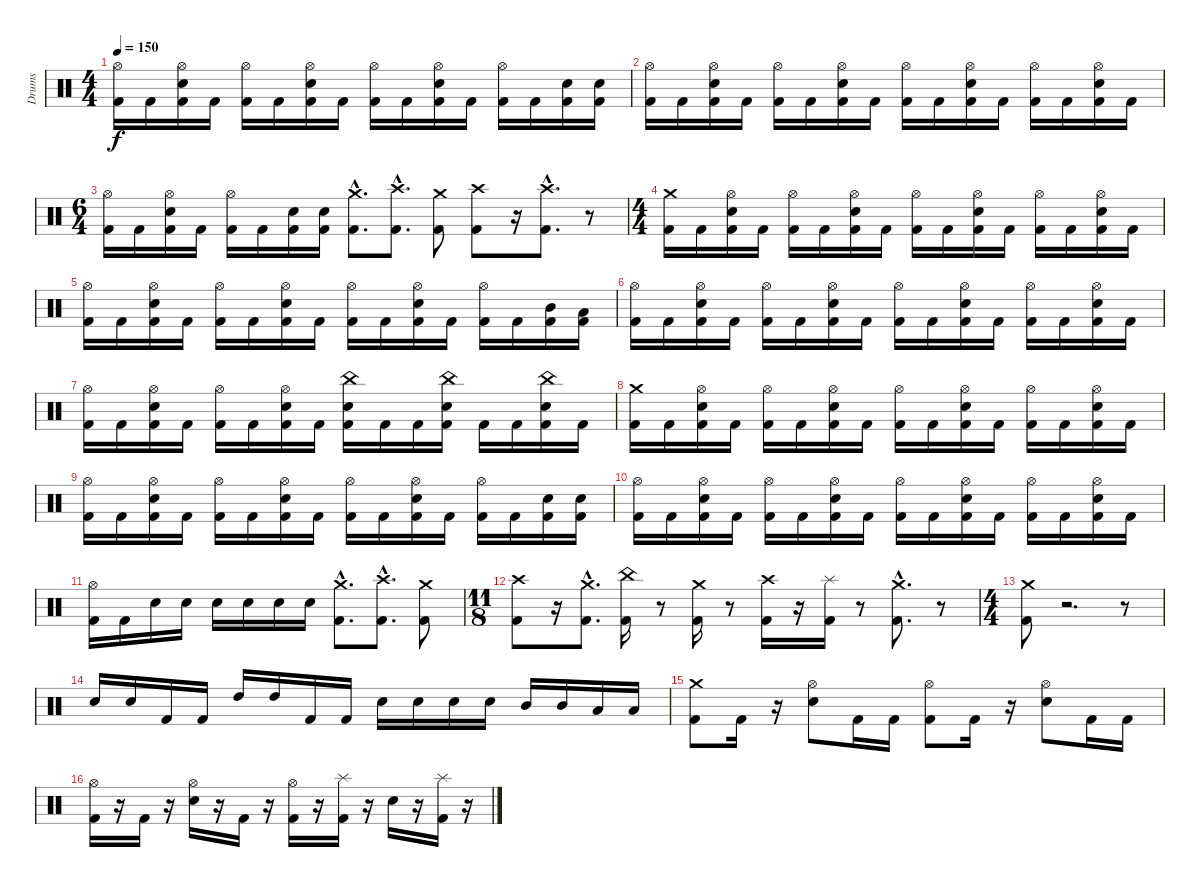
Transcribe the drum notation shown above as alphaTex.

\track ("Drums" "Drums") {instrument percussion}
\staff {score}
\articulation defaults
\ts (4 4)
\tempo 150
\clef neutral
\ks c
("Hi-Hat (open)" "Kick (hit) 2").16{dy f} "Kick (hit) 2".16 ("Hi-Hat (open)" "Electric Snare (hit)" "Kick (hit) 2").16 "Kick (hit) 2".16 ("Hi-Hat (open)" "Kick (hit) 2").16 "Kick (hit) 2".16 ("Hi-Hat (open)" "Electric Snare (hit)" "Kick (hit) 2").16 "Kick (hit) 2".16 ("Hi-Hat (open)" "Kick (hit) 2").16 "Kick (hit) 2".16 ("Hi-Hat (open)" "Electric Snare (hit)" "Kick (hit) 2").16 "Kick (hit) 2".16 ("Hi-Hat (open)" "Kick (hit) 2").16 "Kick (hit) 2".16 ("Electric Snare (hit)" "Kick (hit) 2").16 ("Electric Snare (hit)" "Kick (hit) 2").16 |
("Hi-Hat (open)" "Kick (hit) 2").16 "Kick (hit) 2".16 ("Hi-Hat (open)" "Electric Snare (hit)" "Kick (hit) 2").16 "Kick (hit) 2".16 ("Hi-Hat (open)" "Kick (hit) 2").16 "Kick (hit) 2".16 ("Hi-Hat (open)" "Electric Snare (hit)" "Kick (hit) 2").16 "Kick (hit) 2".16 ("Hi-Hat (open)" "Kick (hit) 2").16 "Kick (hit) 2".16 ("Hi-Hat (open)" "Electric Snare (hit)" "Kick (hit) 2").16 "Kick (hit) 2".16 ("Hi-Hat (open)" "Kick (hit) 2").16 "Kick (hit) 2".16 ("Hi-Hat (open)" "Electric Snare (hit)" "Kick (hit) 2").16 "Kick (hit) 2".16 |
\ts (6 4)
("Hi-Hat (open)" "Kick (hit) 2").16 "Kick (hit) 2".16 ("Hi-Hat (open)" "Electric Snare (hit)" "Kick (hit) 2").16 "Kick (hit) 2".16 ("Hi-Hat (open)" "Kick (hit) 2").16 "Kick (hit) 2".16 ("Electric Snare (hit)" "Kick (hit) 2").16 ("Electric Snare (hit)" "Kick (hit) 2").16 ("Crash medium (hit)" "Kick (hit) 2"{hac}).8{d} ("Crash high (hit)" "Kick (hit) 2"{hac}).8{d} ("Crash medium (hit)" "Kick (hit) 2").8 ("Crash high (hit)" "Kick (hit) 2").8 r.16 ("Crash high (hit)" "Kick (hit) 2"{hac}).8{d} r.8 |
\ts (4 4)
("Crash medium (hit)" "Kick (hit) 2").16 "Kick (hit) 2".16 ("Hi-Hat (open)" "Electric Snare (hit)" "Kick (hit) 2").16 "Kick (hit) 2".16 ("Hi-Hat (open)" "Kick (hit) 2").16 "Kick (hit) 2".16 ("Hi-Hat (open)" "Electric Snare (hit)" "Kick (hit) 2").16 "Kick (hit) 2".16 ("Hi-Hat (open)" "Kick (hit) 2").16 "Kick (hit) 2".16 ("Hi-Hat (open)" "Electric Snare (hit)" "Kick (hit) 2").16 "Kick (hit) 2".16 ("Hi-Hat (open)" "Kick (hit) 2").16 "Kick (hit) 2".16 ("Hi-Hat (open)" "Electric Snare (hit)" "Kick (hit) 2").16 "Kick (hit) 2".16 |
("Hi-Hat (open)" "Kick (hit) 2").16 "Kick (hit) 2".16 ("Hi-Hat (open)" "Electric Snare (hit)" "Kick (hit) 2").16 "Kick (hit) 2".16 ("Hi-Hat (open)" "Kick (hit) 2").16 "Kick (hit) 2".16 ("Hi-Hat (open)" "Electric Snare (hit)" "Kick (hit) 2").16 "Kick (hit) 2".16 ("Hi-Hat (open)" "Kick (hit) 2").16 "Kick (hit) 2".16 ("Hi-Hat (open)" "Electric Snare (hit)" "Kick (hit) 2").16 "Kick (hit) 2".16 ("Hi-Hat (open)" "Kick (hit) 2").16 "Kick (hit) 2".16 ("Mid Tom (hit)" "Kick (hit) 2").16 ("Low Tom (hit)" "Kick (hit) 2").16 |
("Hi-Hat (open)" "Kick (hit) 2").16 "Kick (hit) 2".16 ("Hi-Hat (open)" "Electric Snare (hit)" "Kick (hit) 2").16 "Kick (hit) 2".16 ("Hi-Hat (open)" "Kick (hit) 2").16 "Kick (hit) 2".16 ("Hi-Hat (open)" "Electric Snare (hit)" "Kick (hit) 2").16 "Kick (hit) 2".16 ("Hi-Hat (open)" "Kick (hit) 2").16 "Kick (hit) 2".16 ("Hi-Hat (open)" "Electric Snare (hit)" "Kick (hit) 2").16 "Kick (hit) 2".16 ("Hi-Hat (open)" "Kick (hit) 2").16 "Kick (hit) 2".16 ("Hi-Hat (open)" "Electric Snare (hit)" "Kick (hit) 2").16 "Kick (hit) 2".16 |
("Hi-Hat (open)" "Kick (hit) 2").16 "Kick (hit) 2".16 ("Hi-Hat (open)" "Electric Snare (hit)" "Kick (hit) 2").16 "Kick (hit) 2".16 ("Hi-Hat (open)" "Kick (hit) 2").16 "Kick (hit) 2".16 ("Hi-Hat (open)" "Electric Snare (hit)" "Kick (hit) 2").16 "Kick (hit) 2".16 ("Electric Snare (hit)" "Kick (hit) 2" "China (hit)").16 "Kick (hit) 2".16 "Kick (hit) 2".16 ("Electric Snare (hit)" "Kick (hit) 2" "China (hit)").16 "Kick (hit) 2".16 "Kick (hit) 2".16 ("Electric Snare (hit)" "Kick (hit) 2" "China (hit)").16 "Kick (hit) 2".16 |
("Crash medium (hit)" "Kick (hit) 2").16 "Kick (hit) 2".16 ("Hi-Hat (open)" "Electric Snare (hit)" "Kick (hit) 2").16 "Kick (hit) 2".16 ("Hi-Hat (open)" "Kick (hit) 2").16 "Kick (hit) 2".16 ("Hi-Hat (open)" "Electric Snare (hit)" "Kick (hit) 2").16 "Kick (hit) 2".16 ("Hi-Hat (open)" "Kick (hit) 2").16 "Kick (hit) 2".16 ("Hi-Hat (open)" "Electric Snare (hit)" "Kick (hit) 2").16 "Kick (hit) 2".16 ("Hi-Hat (open)" "Kick (hit) 2").16 "Kick (hit) 2".16 ("Hi-Hat (open)" "Electric Snare (hit)" "Kick (hit) 2").16 "Kick (hit) 2".16 |
("Hi-Hat (open)" "Kick (hit) 2").16 "Kick (hit) 2".16 ("Hi-Hat (open)" "Electric Snare (hit)" "Kick (hit) 2").16 "Kick (hit) 2".16 ("Hi-Hat (open)" "Kick (hit) 2").16 "Kick (hit) 2".16 ("Hi-Hat (open)" "Electric Snare (hit)" "Kick (hit) 2").16 "Kick (hit) 2".16 ("Hi-Hat (open)" "Kick (hit) 2").16 "Kick (hit) 2".16 ("Hi-Hat (open)" "Electric Snare (hit)" "Kick (hit) 2").16 "Kick (hit) 2".16 ("Hi-Hat (open)" "Kick (hit) 2").16 "Kick (hit) 2".16 ("Electric Snare (hit)" "Kick (hit) 2").16 ("Electric Snare (hit)" "Kick (hit) 2").16 |
("Hi-Hat (open)" "Kick (hit) 2").16 "Kick (hit) 2".16 ("Hi-Hat (open)" "Electric Snare (hit)" "Kick (hit) 2").16 "Kick (hit) 2".16 ("Hi-Hat (open)" "Kick (hit) 2").16 "Kick (hit) 2".16 ("Hi-Hat (open)" "Electric Snare (hit)" "Kick (hit) 2").16 "Kick (hit) 2".16 ("Hi-Hat (open)" "Kick (hit) 2").16 "Kick (hit) 2".16 ("Hi-Hat (open)" "Electric Snare (hit)" "Kick (hit) 2").16 "Kick (hit) 2".16 ("Hi-Hat (open)" "Kick (hit) 2").16 "Kick (hit) 2".16 ("Hi-Hat (open)" "Electric Snare (hit)" "Kick (hit) 2").16 "Kick (hit) 2".16 |
("Hi-Hat (open)" "Kick (hit) 2").16 "Kick (hit) 2".16 "Electric Snare (hit)".16 "Electric Snare (hit)".16 "Electric Snare (hit)".16 "Electric Snare (hit)".16 "Electric Snare (hit)".16 "Electric Snare (hit)".16 ("Crash medium (hit)" "Kick (hit) 2"{hac}).8{d} ("Crash high (hit)" "Kick (hit) 2"{hac}).8{d} ("Crash medium (hit)" "Kick (hit) 2").8 |
\ts (11 8)
("Crash high (hit)" "Kick (hit) 2").8 r.16 ("Crash medium (hit)" "Kick (hit) 2"{hac}).8{d} ("China (hit)" "Kick (hit) 2").16 r.8 ("Crash medium (hit)" "Kick (hit) 2").16 r.8 ("Crash high (hit)" "Kick (hit) 2").16 r.16 ("Splash (hit)" "Kick (hit) 2").16 r.8 ("Crash medium (hit)" "Kick (hit) 2"{hac}).8{d} r.8 |
\ts (4 4)
("Crash medium (hit)" "Kick (hit) 2").8 r.2{d} r.8 |
"Electric Snare (hit)".16 "Electric Snare (hit)".16 "Kick (hit) 2".16 "Kick (hit) 2".16 "High Tom (hit)".16 "High Tom (hit)".16 "Kick (hit) 2".16 "Kick (hit) 2".16 "Electric Snare (hit)".16 "Electric Snare (hit)".16 "Electric Snare (hit)".16 "Electric Snare (hit)".16 "Mid Tom (hit)".16 "Mid Tom (hit)".16 "Low Tom (hit)".16 "Low Tom (hit)".16 |
("Crash medium (hit)" "Kick (hit) 2").8 "Kick (hit) 2".16 r.16 ("Hi-Hat (open)" "Electric Snare (hit)").8 "Kick (hit) 2".16 "Kick (hit) 2".16 ("Hi-Hat (open)" "Kick (hit) 2").8 "Kick (hit) 2".16 r.16 ("Hi-Hat (open)" "Electric Snare (hit)").8 "Kick (hit) 2".16 "Kick (hit) 2".16 |
("Hi-Hat (open)" "Kick (hit) 2").16 r.16 "Kick (hit) 2".16 r.16 ("Hi-Hat (open)" "Electric Snare (hit)").16 r.16 "Kick (hit) 2".16 r.16 ("Hi-Hat (open)" "Kick (hit) 2").16 r.16 ("Splash (hit)" "Kick (hit) 2").16 r.16 "Electric Snare (hit)".16 r.16 ("Splash (hit)" "Kick (hit) 2").16 r.16
